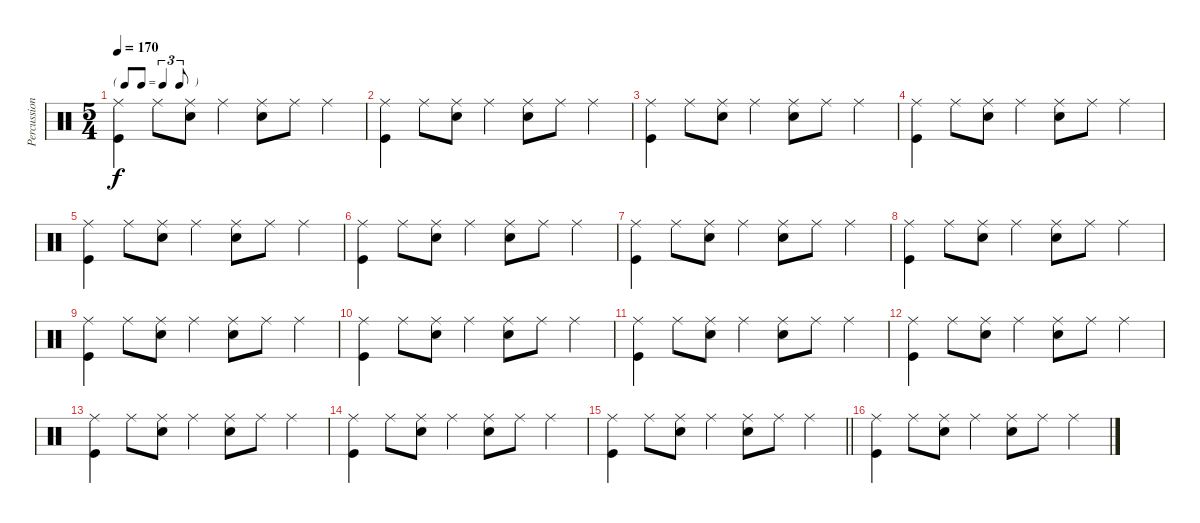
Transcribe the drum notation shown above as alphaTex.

\track ("Percussions" "Percussion") {instrument percussion}
\staff {score}
\articulation defaults
\ts (5 4)
\tf triplet8th
\tempo 170
\clef neutral
\ks c
("Ride (middle)" "Kick (hit)").4{dy f} "Ride (middle)".8 ("Ride (middle)" "Snare (hit) 2").8 "Ride (middle)".4 ("Ride (middle)" "Snare (hit) 2").8 "Ride (middle)".8 "Ride (middle)".4 |
("Ride (middle)" "Kick (hit)").4 "Ride (middle)".8 ("Ride (middle)" "Snare (hit) 2").8 "Ride (middle)".4 ("Ride (middle)" "Snare (hit) 2").8 "Ride (middle)".8 "Ride (middle)".4 |
("Ride (middle)" "Kick (hit)").4 "Ride (middle)".8 ("Ride (middle)" "Snare (hit) 2").8 "Ride (middle)".4 ("Ride (middle)" "Snare (hit) 2").8 "Ride (middle)".8 "Ride (middle)".4 |
("Ride (middle)" "Kick (hit)").4 "Ride (middle)".8 ("Ride (middle)" "Snare (hit) 2").8 "Ride (middle)".4 ("Ride (middle)" "Snare (hit) 2").8 "Ride (middle)".8 "Ride (middle)".4 |
("Ride (middle)" "Kick (hit)").4 "Ride (middle)".8 ("Ride (middle)" "Snare (hit) 2").8 "Ride (middle)".4 ("Ride (middle)" "Snare (hit) 2").8 "Ride (middle)".8 "Ride (middle)".4 |
("Ride (middle)" "Kick (hit)").4 "Ride (middle)".8 ("Ride (middle)" "Snare (hit) 2").8 "Ride (middle)".4 ("Ride (middle)" "Snare (hit) 2").8 "Ride (middle)".8 "Ride (middle)".4 |
("Ride (middle)" "Kick (hit)").4 "Ride (middle)".8 ("Ride (middle)" "Snare (hit) 2").8 "Ride (middle)".4 ("Ride (middle)" "Snare (hit) 2").8 "Ride (middle)".8 "Ride (middle)".4 |
("Ride (middle)" "Kick (hit)").4 "Ride (middle)".8 ("Ride (middle)" "Snare (hit) 2").8 "Ride (middle)".4 ("Ride (middle)" "Snare (hit) 2").8 "Ride (middle)".8 "Ride (middle)".4 |
("Ride (middle)" "Kick (hit)").4 "Ride (middle)".8 ("Ride (middle)" "Snare (hit) 2").8 "Ride (middle)".4 ("Ride (middle)" "Snare (hit) 2").8 "Ride (middle)".8 "Ride (middle)".4 |
("Ride (middle)" "Kick (hit)").4 "Ride (middle)".8 ("Ride (middle)" "Snare (hit) 2").8 "Ride (middle)".4 ("Ride (middle)" "Snare (hit) 2").8 "Ride (middle)".8 "Ride (middle)".4 |
("Ride (middle)" "Kick (hit)").4 "Ride (middle)".8 ("Ride (middle)" "Snare (hit) 2").8 "Ride (middle)".4 ("Ride (middle)" "Snare (hit) 2").8 "Ride (middle)".8 "Ride (middle)".4 |
("Ride (middle)" "Kick (hit)").4 "Ride (middle)".8 ("Ride (middle)" "Snare (hit) 2").8 "Ride (middle)".4 ("Ride (middle)" "Snare (hit) 2").8 "Ride (middle)".8 "Ride (middle)".4 |
("Ride (middle)" "Kick (hit)").4 "Ride (middle)".8 ("Ride (middle)" "Snare (hit) 2").8 "Ride (middle)".4 ("Ride (middle)" "Snare (hit) 2").8 "Ride (middle)".8 "Ride (middle)".4 |
("Ride (middle)" "Kick (hit)").4 "Ride (middle)".8 ("Ride (middle)" "Snare (hit) 2").8 "Ride (middle)".4 ("Ride (middle)" "Snare (hit) 2").8 "Ride (middle)".8 "Ride (middle)".4 |
\barLineRight lightlight
("Ride (middle)" "Kick (hit)").4 "Ride (middle)".8 ("Ride (middle)" "Snare (hit) 2").8 "Ride (middle)".4 ("Ride (middle)" "Snare (hit) 2").8 "Ride (middle)".8 "Ride (middle)".4 |
("Ride (middle)" "Kick (hit)").4 "Ride (middle)".8 ("Ride (middle)" "Snare (hit) 2").8 "Ride (middle)".4 ("Ride (middle)" "Snare (hit) 2").8 "Ride (middle)".8 "Ride (middle)".4
